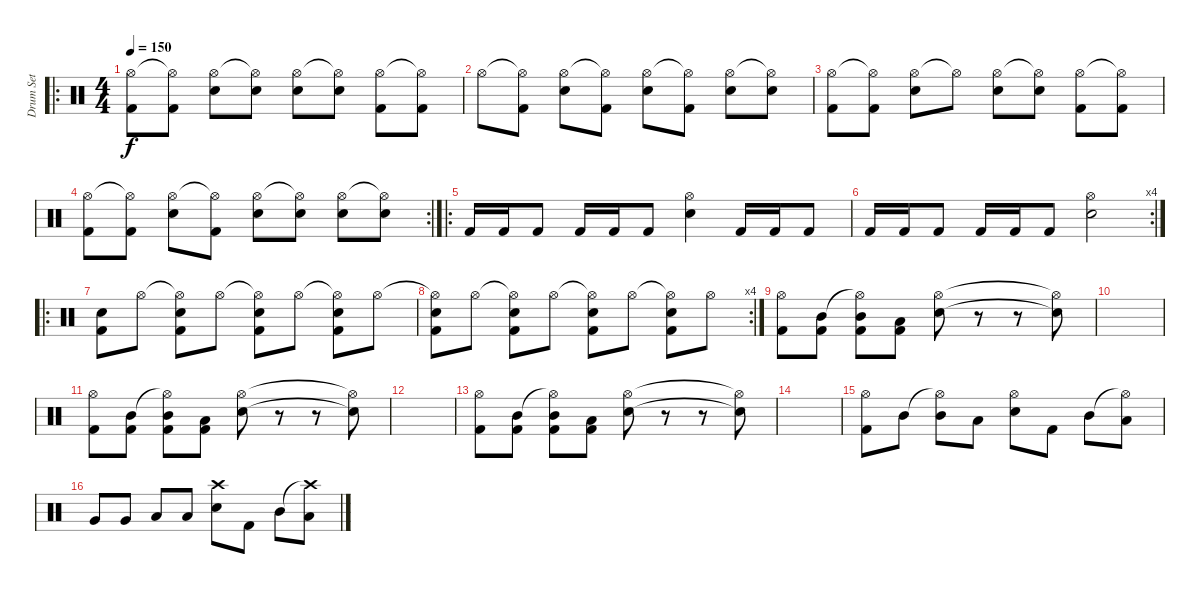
\track ("Drum Set" "Drum Set") {instrument percussion}
\staff {score}
\articulation defaults
\ro
\ts (4 4)
\tempo 150
\clef neutral
\ks c
("Hi-Hat (open)" "Kick (hit) 2").8{dy f} ("Hi-Hat (open)"{t} "Kick (hit) 2").8 ("Hi-Hat (open)" "Snare (hit) 2").8 ("Hi-Hat (open)"{t} "Snare (hit)"{x}).8 ("Hi-Hat (open)" "Snare (hit) 2").8 ("Hi-Hat (open)"{t} "Snare (hit) 2").8 ("Hi-Hat (open)" "Kick (hit) 2").8 ("Hi-Hat (open)"{t} "Kick (hit) 2").8 |
"Hi-Hat (open)".8 ("Hi-Hat (open)"{t} "Kick (hit) 2").8 ("Hi-Hat (open)" "Snare (hit) 2").8 ("Hi-Hat (open)"{t} "Kick (hit) 2").8 ("Hi-Hat (open)" "Snare (hit) 2").8 ("Hi-Hat (open)"{t} "Kick (hit) 2").8 ("Hi-Hat (open)" "Snare (hit) 2").8 ("Hi-Hat (open)"{t} "Snare (hit) 2").8 |
("Hi-Hat (open)" "Kick (hit) 2").8 ("Hi-Hat (open)"{t} "Kick (hit) 2").8 ("Hi-Hat (open)" "Snare (hit) 2").8 "Hi-Hat (open)"{t}.8 ("Hi-Hat (open)" "Snare (hit) 2").8 ("Hi-Hat (open)"{t} "Snare (hit) 2").8 ("Hi-Hat (open)" "Kick (hit) 2").8 ("Hi-Hat (open)"{t} "Kick (hit) 2").8 |
\rc 2
("Hi-Hat (open)" "Kick (hit) 2").8 ("Hi-Hat (open)"{t} "Kick (hit) 2").8 ("Hi-Hat (open)" "Snare (hit) 2").8 ("Hi-Hat (open)"{t} "Kick (hit) 2").8 ("Hi-Hat (open)" "Snare (hit) 2").8 ("Hi-Hat (open)"{t} "Snare (hit) 2").8 ("Hi-Hat (open)" "Snare (hit) 2").8 ("Hi-Hat (open)"{t} "Snare (hit) 2").8 |
\ro "Kick (hit) 2".16 "Kick (hit) 2".16 "Kick (hit) 2".8 "Kick (hit) 2".16 "Kick (hit) 2".16 "Kick (hit) 2".8
("Hi-Hat (open)" "Snare (hit) 2").4 "Kick (hit) 2".16 "Kick (hit) 2".16 "Kick (hit) 2".8 |
\rc 4 "Kick (hit) 2".16 "Kick (hit) 2".16 "Kick (hit) 2".8 "Kick (hit) 2".16 "Kick (hit) 2".16 "Kick (hit) 2".8
("Hi-Hat (open)" "Snare (hit) 2").2 |
\ro
("Snare (hit) 2" "Kick (hit) 2").8 "Hi-Hat (open)".8 ("Hi-Hat (open)"{t} "Snare (hit) 2" "Kick (hit) 2").8 "Hi-Hat (open)".8 ("Hi-Hat (open)"{t} "Snare (hit) 2" "Kick (hit) 2").8 "Hi-Hat (open)".8 ("Hi-Hat (open)"{t} "Snare (hit) 2" "Kick (hit) 2").8 "Hi-Hat (open)".8 |
\rc 4
("Hi-Hat (open)"{t} "Snare (hit) 2" "Kick (hit) 2").8 "Hi-Hat (open)".8 ("Hi-Hat (open)"{t} "Snare (hit) 2" "Kick (hit) 2").8 "Hi-Hat (open)".8 ("Hi-Hat (open)"{t} "Snare (hit) 2" "Kick (hit) 2").8 "Hi-Hat (open)".8 ("Hi-Hat (open)"{t} "Snare (hit) 2" "Kick (hit) 2").8 "Hi-Hat (open)".8 |
("Hi-Hat (open)" "Kick (hit) 2").8 ("Mid Tom (hit)" "Kick (hit) 2").8 ("Hi-Hat (open)"{t} "Mid Tom (hit)" "Kick (hit) 2").8 ("Low Tom (hit)" "Kick (hit) 2").8 ("Hi-Hat (open)" "Snare (hit) 2").8 r.8 r.8 ("Hi-Hat (open)"{t} "Snare (hit) 2"{t}).8 |
|
("Hi-Hat (open)" "Kick (hit) 2").8 ("Mid Tom (hit)" "Kick (hit) 2").8 ("Hi-Hat (open)"{t} "Mid Tom (hit)" "Kick (hit) 2").8 ("Low Tom (hit)" "Kick (hit) 2").8 ("Hi-Hat (open)" "Snare (hit) 2").8 r.8 r.8 ("Hi-Hat (open)"{t} "Snare (hit) 2"{t}).8 |
|
("Hi-Hat (open)" "Kick (hit) 2").8 ("Mid Tom (hit)" "Kick (hit) 2").8 ("Hi-Hat (open)"{t} "Mid Tom (hit)" "Kick (hit) 2").8 ("Low Tom (hit)" "Kick (hit) 2").8 ("Hi-Hat (open)" "Snare (hit) 2").8 r.8 r.8 ("Hi-Hat (open)"{t} "Snare (hit) 2"{t}).8 |
|
("Hi-Hat (open)" "Kick (hit) 2").8 "Mid Tom (hit)".8 ("Hi-Hat (open)"{t} "Mid Tom (hit)").8 "Low Tom (hit)".8 ("Hi-Hat (open)" "Snare (hit) 2").8 "Kick (hit) 2".8 "Mid Tom (hit)".8 ("Hi-Hat (open)"{t} "Low Tom (hit)").8 |
"Very Low Tom (hit)".8 "Very Low Tom (hit)".8 "Low Tom (hit)".8 "Low Floor Tom (hit)".8 ("Crash high (hit)" "Snare (hit) 2").8 "Kick (hit) 2".8 "Mid Tom (hit)".8 ("Crash high (hit)"{t} "Low Tom (hit)").8
